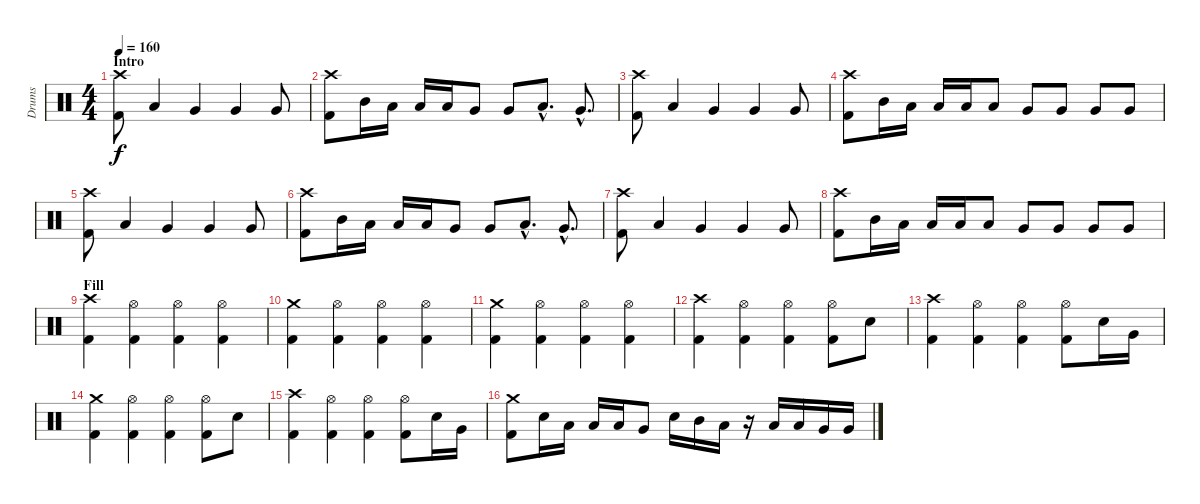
\track ("Drums" "Drums") {instrument percussion}
\staff {score}
\articulation defaults
\ts (4 4)
\section ("" "Intro")
\tempo 160
\clef neutral
\ks c
("Crash high (hit)" "Kick (hit) 2").8{dy f} "Low Tom (hit)".4 "Very Low Tom (hit)".4 "Very Low Tom (hit)".4 "Very Low Tom (hit)".8 |
("Crash high (hit)" "Kick (hit) 2").8 "Mid Tom (hit)".16 "Low Tom (hit)".16 "Low Tom (hit)".16 "Low Tom (hit)".16 "Very Low Tom (hit)".8 "Very Low Tom (hit)".8 "Low Tom (hit)"{hac}.8{d} "Very Low Tom (hit)"{hac}.8{d} |
("Crash high (hit)" "Kick (hit) 2").8 "Low Tom (hit)".4 "Very Low Tom (hit)".4 "Very Low Tom (hit)".4 "Very Low Tom (hit)".8 |
("Crash high (hit)" "Kick (hit) 2").8 "Mid Tom (hit)".16 "Low Tom (hit)".16 "Low Tom (hit)".16 "Low Tom (hit)".16 "Low Tom (hit)".8 "Very Low Tom (hit)".8 "Very Low Tom (hit)".8 "Very Low Tom (hit)".8 "Very Low Tom (hit)".8 |
("Crash high (hit)" "Kick (hit) 2").8 "Low Tom (hit)".4 "Very Low Tom (hit)".4 "Very Low Tom (hit)".4 "Very Low Tom (hit)".8 |
("Crash high (hit)" "Kick (hit) 2").8 "Mid Tom (hit)".16 "Low Tom (hit)".16 "Low Tom (hit)".16 "Low Tom (hit)".16 "Very Low Tom (hit)".8 "Very Low Tom (hit)".8 "Low Tom (hit)"{hac}.8{d} "Very Low Tom (hit)"{hac}.8{d} |
("Crash high (hit)" "Kick (hit) 2").8 "Low Tom (hit)".4 "Very Low Tom (hit)".4 "Very Low Tom (hit)".4 "Very Low Tom (hit)".8 |
("Crash high (hit)" "Kick (hit) 2").8 "Mid Tom (hit)".16 "Low Tom (hit)".16 "Low Tom (hit)".16 "Low Tom (hit)".16 "Low Tom (hit)".8 "Very Low Tom (hit)".8 "Very Low Tom (hit)".8 "Very Low Tom (hit)".8 "Very Low Tom (hit)".8 |
\section ("" "Fill")
("Crash high (hit)" "Kick (hit) 2").4 ("Hi-Hat (open)" "Kick (hit) 2").4 ("Hi-Hat (open)" "Kick (hit) 2").4 ("Hi-Hat (open)" "Kick (hit) 2").4 |
("Crash medium (hit)" "Kick (hit) 2").4 ("Hi-Hat (open)" "Kick (hit) 2").4 ("Hi-Hat (open)" "Kick (hit) 2").4 ("Hi-Hat (open)" "Kick (hit) 2").4 |
("Crash medium (hit)" "Kick (hit) 2").4 ("Hi-Hat (open)" "Kick (hit) 2").4 ("Hi-Hat (open)" "Kick (hit) 2").4 ("Hi-Hat (open)" "Kick (hit) 2").4 |
("Crash high (hit)" "Kick (hit) 2").4 ("Hi-Hat (open)" "Kick (hit) 2").4 ("Hi-Hat (open)" "Kick (hit) 2").4 ("Hi-Hat (open)" "Kick (hit) 2").8 "Snare (hit) 2".8 |
("Crash high (hit)" "Kick (hit) 2").4 ("Hi-Hat (open)" "Kick (hit) 2").4 ("Hi-Hat (open)" "Kick (hit) 2").4 ("Hi-Hat (open)" "Kick (hit) 2").8 "Snare (hit) 2".16 "Very Low Tom (hit)".16 |
("Crash medium (hit)" "Kick (hit) 2").4 ("Hi-Hat (open)" "Kick (hit) 2").4 ("Hi-Hat (open)" "Kick (hit) 2").4 ("Hi-Hat (open)" "Kick (hit) 2").8 "Snare (hit) 2".8 |
("Crash high (hit)" "Kick (hit) 2").4 ("Hi-Hat (open)" "Kick (hit) 2").4 ("Hi-Hat (open)" "Kick (hit) 2").4 ("Hi-Hat (open)" "Kick (hit) 2").8 "Snare (hit) 2".16 "Very Low Tom (hit)".16 |
("Crash medium (hit)" "Kick (hit) 2").8 "Snare (hit) 2".16 "Low Tom (hit)".16 "Low Tom (hit)".16 "Low Tom (hit)".16 "Very Low Tom (hit)".8 "Snare (hit) 2".16 "Mid Tom (hit)".16 "Low Tom (hit)".16 r.16 "Low Tom (hit)".16 "Low Tom (hit)".16 "Very Low Tom (hit)".16 "Very Low Tom (hit)".16
